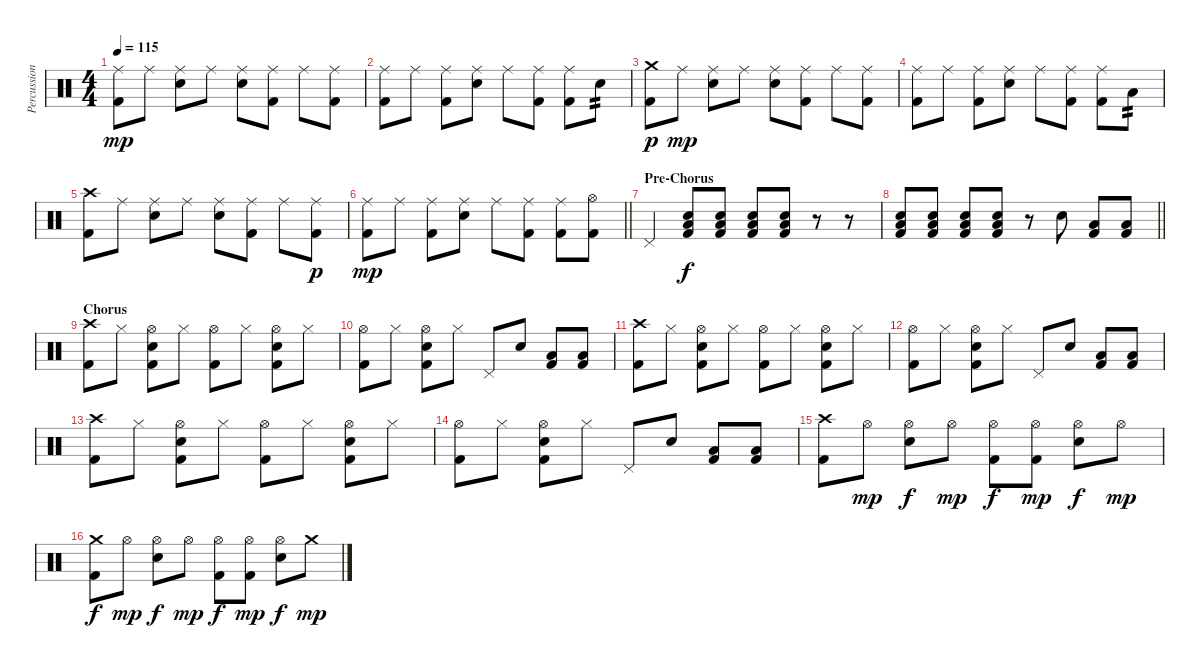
\track ("Percussion" "Percussion") {instrument percussion}
\staff {score}
\articulation defaults
\ts (4 4)
\tempo 115
\clef neutral
\ks c
("Ride (middle)" "Kick (hit) 2").8{dy mp} "Ride (middle)".8 ("Ride (middle)" "Electric Snare (hit)").8 "Ride (middle)".8 ("Ride (middle)" "Electric Snare (hit)").8 ("Ride (middle)" "Kick (hit) 2").8 "Ride (middle)".8 ("Ride (middle)" "Kick (hit) 2").8 |
("Ride (middle)" "Kick (hit) 2").8 "Ride (middle)".8 ("Ride (middle)" "Kick (hit) 2").8 ("Ride (middle)" "Electric Snare (hit)").8 "Ride (middle)".8 ("Ride (middle)" "Kick (hit) 2").8 ("Ride (middle)" "Kick (hit) 2").8 "Electric Snare (hit)".8{tp 2} |
("Crash medium (hit)" "Kick (hit) 2").8{dy p} "Ride (middle)".8{dy mp} ("Ride (middle)" "Electric Snare (hit)").8 "Ride (middle)".8 ("Ride (middle)" "Electric Snare (hit)").8 ("Ride (middle)" "Kick (hit) 2").8 "Ride (middle)".8 ("Ride (middle)" "Kick (hit) 2").8 |
("Ride (middle)" "Kick (hit) 2").8 "Ride (middle)".8 ("Ride (middle)" "Kick (hit) 2").8 ("Ride (middle)" "Electric Snare (hit)").8 "Ride (middle)".8 ("Ride (middle)" "Kick (hit) 2").8 ("Ride (middle)" "Kick (hit) 2").8 "Low Floor Tom (hit)".8{tp 2} |
("Crash high (hit)" "Kick (hit) 2").8 "Ride (middle)".8 ("Ride (middle)" "Electric Snare (hit)").8 "Ride (middle)".8 ("Ride (middle)" "Electric Snare (hit)").8 ("Ride (middle)" "Kick (hit) 2").8 "Ride (middle)".8 ("Ride (middle)" "Kick (hit) 2").8{dy p} |
\barLineRight lightlight
("Ride (middle)" "Kick (hit) 2").8{dy mp} "Ride (middle)".8 ("Ride (middle)" "Kick (hit) 2").8 ("Ride (middle)" "Electric Snare (hit)").8 "Ride (middle)".8 ("Ride (middle)" "Kick (hit) 2").8 ("Ride (middle)" "Kick (hit) 2").8 ("Hi-Hat (open)" "Kick (hit) 2").8 |
\section ("" "Pre-Chorus")
"Pedal Hi-Hat (hit)".4 ("Low Floor Tom (hit)" "Electric Snare (hit)" "Kick (hit) 2").8{dy f} ("Low Floor Tom (hit)" "Electric Snare (hit)" "Kick (hit) 2").8 ("Low Floor Tom (hit)" "Electric Snare (hit)" "Kick (hit) 2").8 ("Low Floor Tom (hit)" "Electric Snare (hit)" "Kick (hit) 2").8 r.8 r.8 |
\barLineRight lightlight
("Low Floor Tom (hit)" "Electric Snare (hit)" "Kick (hit) 2").8 ("Low Floor Tom (hit)" "Electric Snare (hit)" "Kick (hit) 2").8 ("Low Floor Tom (hit)" "Electric Snare (hit)" "Kick (hit) 2").8 ("Low Floor Tom (hit)" "Electric Snare (hit)" "Kick (hit) 2").8 r.8 "Electric Snare (hit)".8 ("Low Tom (hit)" "Kick (hit) 2").8 ("Low Floor Tom (hit)" "Kick (hit) 2").8 |
\section ("" "Chorus")
("Crash high (hit)" "Kick (hit) 2").8 "Hi-Hat (closed)".8 ("Hi-Hat (open)" "Electric Snare (hit)" "Kick (hit) 2").8 "Hi-Hat (closed)".8 ("Hi-Hat (open)" "Kick (hit) 2").8 "Hi-Hat (closed)".8 ("Hi-Hat (open)" "Electric Snare (hit)" "Kick (hit) 2").8 "Hi-Hat (closed)".8 |
("Hi-Hat (open)" "Kick (hit) 2").8 "Hi-Hat (closed)".8 ("Hi-Hat (open)" "Electric Snare (hit)" "Kick (hit) 2").8 "Hi-Hat (closed)".8 "Pedal Hi-Hat (hit)".8 "Electric Snare (hit)".8 ("Low Tom (hit)" "Kick (hit) 2").8 ("Low Floor Tom (hit)" "Kick (hit) 2").8 |
("Crash high (hit)" "Kick (hit) 2").8 "Hi-Hat (closed)".8 ("Hi-Hat (open)" "Electric Snare (hit)" "Kick (hit) 2").8 "Hi-Hat (closed)".8 ("Hi-Hat (open)" "Kick (hit) 2").8 "Hi-Hat (closed)".8 ("Hi-Hat (open)" "Electric Snare (hit)" "Kick (hit) 2").8 "Hi-Hat (closed)".8 |
("Hi-Hat (open)" "Kick (hit) 2").8 "Hi-Hat (closed)".8 ("Hi-Hat (open)" "Electric Snare (hit)" "Kick (hit) 2").8 "Hi-Hat (closed)".8 "Pedal Hi-Hat (hit)".8 "Electric Snare (hit)".8 ("Low Tom (hit)" "Kick (hit) 2").8 ("Low Floor Tom (hit)" "Kick (hit) 2").8 |
("Crash high (hit)" "Kick (hit) 2").8 "Hi-Hat (closed)".8 ("Hi-Hat (open)" "Electric Snare (hit)" "Kick (hit) 2").8 "Hi-Hat (closed)".8 ("Hi-Hat (open)" "Kick (hit) 2").8 "Hi-Hat (closed)".8 ("Hi-Hat (open)" "Electric Snare (hit)" "Kick (hit) 2").8 "Hi-Hat (closed)".8 |
("Hi-Hat (open)" "Kick (hit) 2").8 "Hi-Hat (closed)".8 ("Hi-Hat (open)" "Electric Snare (hit)" "Kick (hit) 2").8 "Hi-Hat (closed)".8 "Pedal Hi-Hat (hit)".8 "Electric Snare (hit)".8 ("Low Tom (hit)" "Kick (hit) 2").8 ("Low Floor Tom (hit)" "Kick (hit) 2").8 |
("Crash high (hit)" "Kick (hit) 2").8 "Hi-Hat (open)".8{dy mp} ("Hi-Hat (open)" "Electric Snare (hit)").8{dy f} "Hi-Hat (open)".8{dy mp} ("Hi-Hat (open)" "Kick (hit) 2").8{dy f} ("Hi-Hat (open)" "Kick (hit) 2").8{dy mp} ("Hi-Hat (open)" "Electric Snare (hit)").8{dy f} "Hi-Hat (open)".8{dy mp} |
("Crash medium (hit)" "Kick (hit) 2").8{dy f} "Hi-Hat (open)".8{dy mp} ("Hi-Hat (open)" "Electric Snare (hit)").8{dy f} "Hi-Hat (open)".8{dy mp} ("Hi-Hat (open)" "Kick (hit) 2").8{dy f} ("Hi-Hat (open)" "Kick (hit) 2").8{dy mp} ("Hi-Hat (open)" "Electric Snare (hit)").8{dy f} "Crash medium (hit)".8{dy mp}
